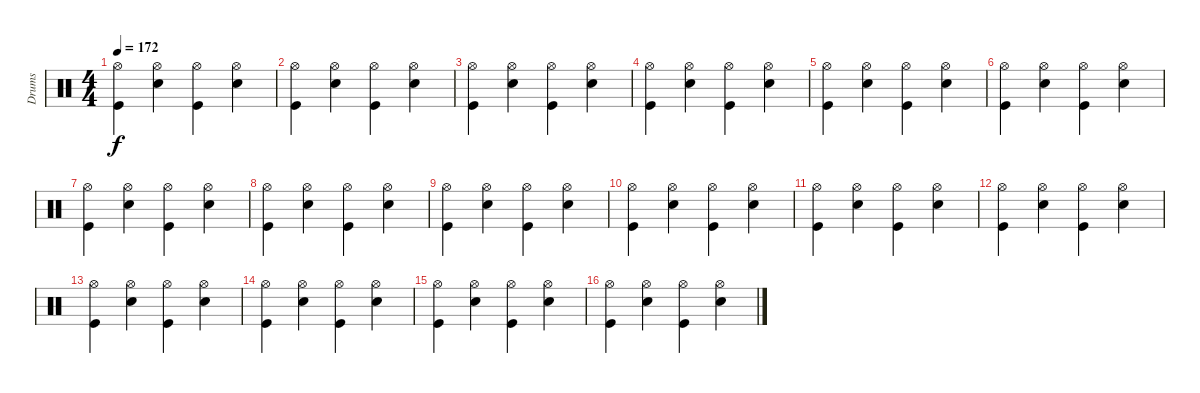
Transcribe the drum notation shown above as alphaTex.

\track ("Drums" "Drums") {instrument percussion}
\staff {score}
\articulation defaults
\ts (4 4)
\tempo 172
\clef neutral
\ks c
("Kick (hit)" "Hi-Hat (open)").4{dy f} ("Snare (hit) 2" "Hi-Hat (open)").4 ("Kick (hit)" "Hi-Hat (open)").4 ("Snare (hit) 2" "Hi-Hat (open)").4 |
("Kick (hit)" "Hi-Hat (open)").4 ("Snare (hit) 2" "Hi-Hat (open)").4 ("Kick (hit)" "Hi-Hat (open)").4 ("Snare (hit) 2" "Hi-Hat (open)").4 |
("Kick (hit)" "Hi-Hat (open)").4 ("Snare (hit) 2" "Hi-Hat (open)").4 ("Kick (hit)" "Hi-Hat (open)").4 ("Snare (hit) 2" "Hi-Hat (open)").4 |
("Kick (hit)" "Hi-Hat (open)").4 ("Snare (hit) 2" "Hi-Hat (open)").4 ("Kick (hit)" "Hi-Hat (open)").4 ("Snare (hit) 2" "Hi-Hat (open)").4 |
("Kick (hit)" "Hi-Hat (open)").4 ("Snare (hit) 2" "Hi-Hat (open)").4 ("Kick (hit)" "Hi-Hat (open)").4 ("Snare (hit) 2" "Hi-Hat (open)").4 |
("Kick (hit)" "Hi-Hat (open)").4 ("Snare (hit) 2" "Hi-Hat (open)").4 ("Kick (hit)" "Hi-Hat (open)").4 ("Snare (hit) 2" "Hi-Hat (open)").4 |
("Kick (hit)" "Hi-Hat (open)").4 ("Snare (hit) 2" "Hi-Hat (open)").4 ("Kick (hit)" "Hi-Hat (open)").4 ("Snare (hit) 2" "Hi-Hat (open)").4 |
("Kick (hit)" "Hi-Hat (open)").4 ("Snare (hit) 2" "Hi-Hat (open)").4 ("Kick (hit)" "Hi-Hat (open)").4 ("Snare (hit) 2" "Hi-Hat (open)").4 |
("Kick (hit)" "Hi-Hat (open)").4 ("Snare (hit) 2" "Hi-Hat (open)").4 ("Kick (hit)" "Hi-Hat (open)").4 ("Snare (hit) 2" "Hi-Hat (open)").4 |
("Kick (hit)" "Hi-Hat (open)").4 ("Snare (hit) 2" "Hi-Hat (open)").4 ("Kick (hit)" "Hi-Hat (open)").4 ("Snare (hit) 2" "Hi-Hat (open)").4 |
("Kick (hit)" "Hi-Hat (open)").4 ("Snare (hit) 2" "Hi-Hat (open)").4 ("Kick (hit)" "Hi-Hat (open)").4 ("Snare (hit) 2" "Hi-Hat (open)").4 |
("Kick (hit)" "Hi-Hat (open)").4 ("Snare (hit) 2" "Hi-Hat (open)").4 ("Kick (hit)" "Hi-Hat (open)").4 ("Snare (hit) 2" "Hi-Hat (open)").4 |
("Kick (hit)" "Hi-Hat (open)").4 ("Snare (hit) 2" "Hi-Hat (open)").4 ("Kick (hit)" "Hi-Hat (open)").4 ("Snare (hit) 2" "Hi-Hat (open)").4 |
("Kick (hit)" "Hi-Hat (open)").4 ("Snare (hit) 2" "Hi-Hat (open)").4 ("Kick (hit)" "Hi-Hat (open)").4 ("Snare (hit) 2" "Hi-Hat (open)").4 |
("Kick (hit)" "Hi-Hat (open)").4 ("Snare (hit) 2" "Hi-Hat (open)").4 ("Kick (hit)" "Hi-Hat (open)").4 ("Snare (hit) 2" "Hi-Hat (open)").4 |
("Kick (hit)" "Hi-Hat (open)").4 ("Snare (hit) 2" "Hi-Hat (open)").4 ("Kick (hit)" "Hi-Hat (open)").4 ("Snare (hit) 2" "Hi-Hat (open)").4
